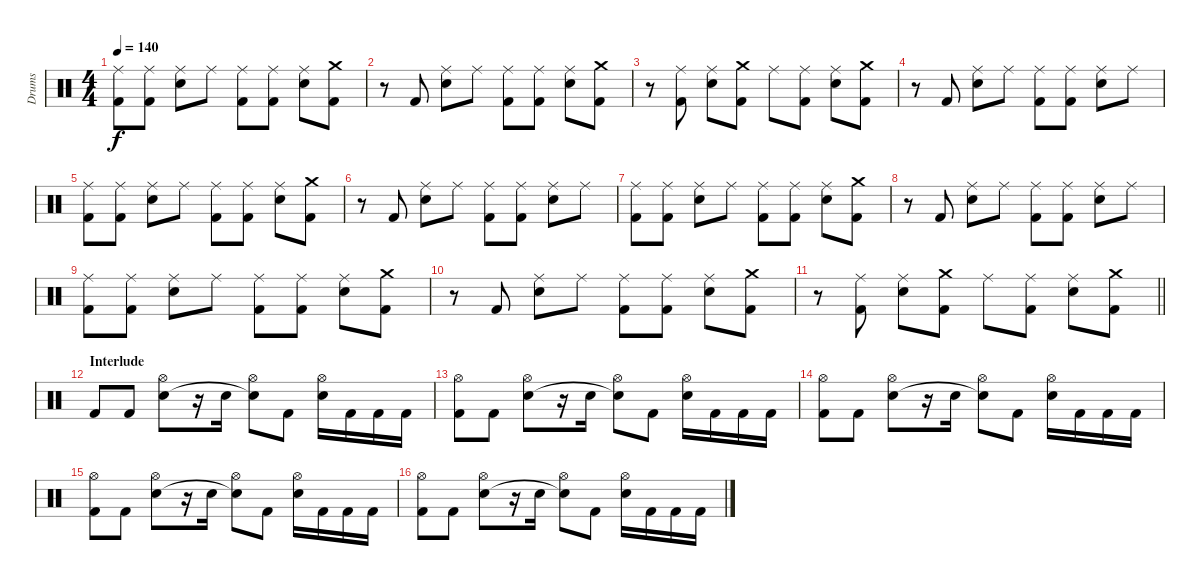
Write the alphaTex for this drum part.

\track ("Drums" "Drums") {instrument percussion}
\staff {score}
\articulation defaults
\ts (4 4)
\tempo 140
\clef neutral
\ks c
("Ride (middle)" "Kick (hit) 2").8{dy f} ("Ride (middle)" "Kick (hit) 2").8 ("Ride (middle)" "Snare (hit) 2").8 "Ride (middle)".8 ("Ride (middle)" "Kick (hit) 2").8 ("Ride (middle)" "Kick (hit) 2").8 ("Ride (middle)" "Snare (hit) 2").8 ("Crash medium (hit)" "Kick (hit) 2").8 |
r.8 "Kick (hit) 2".8 ("Ride (middle)" "Snare (hit) 2").8 "Ride (middle)".8 ("Ride (middle)" "Kick (hit) 2").8 ("Ride (middle)" "Kick (hit) 2").8 ("Ride (middle)" "Snare (hit) 2").8 ("Crash medium (hit)" "Kick (hit) 2").8 |
r.8 ("Ride (middle)" "Kick (hit) 2").8 ("Ride (middle)" "Snare (hit) 2").8 ("Crash medium (hit)" "Kick (hit) 2").8 "Ride (middle)".8 ("Ride (middle)" "Kick (hit) 2").8 ("Ride (middle)" "Snare (hit) 2").8 ("Crash medium (hit)" "Kick (hit) 2").8 |
r.8 "Kick (hit) 2".8 ("Ride (middle)" "Snare (hit) 2").8 "Ride (middle)".8 ("Ride (middle)" "Kick (hit) 2").8 ("Ride (middle)" "Kick (hit) 2").8 ("Ride (middle)" "Snare (hit) 2").8 "Ride (middle)".8 |
("Ride (middle)" "Kick (hit) 2").8 ("Ride (middle)" "Kick (hit) 2").8 ("Ride (middle)" "Snare (hit) 2").8 "Ride (middle)".8 ("Ride (middle)" "Kick (hit) 2").8 ("Ride (middle)" "Kick (hit) 2").8 ("Ride (middle)" "Snare (hit) 2").8 ("Crash medium (hit)" "Kick (hit) 2").8 |
r.8 "Kick (hit) 2".8 ("Ride (middle)" "Snare (hit) 2").8 "Ride (middle)".8 ("Ride (middle)" "Kick (hit) 2").8 ("Ride (middle)" "Kick (hit) 2").8 ("Ride (middle)" "Snare (hit) 2").8 "Ride (middle)".8 |
("Ride (middle)" "Kick (hit) 2").8 ("Ride (middle)" "Kick (hit) 2").8 ("Ride (middle)" "Snare (hit) 2").8 "Ride (middle)".8 ("Ride (middle)" "Kick (hit) 2").8 ("Ride (middle)" "Kick (hit) 2").8 ("Ride (middle)" "Snare (hit) 2").8 ("Crash medium (hit)" "Kick (hit) 2").8 |
r.8 "Kick (hit) 2".8 ("Ride (middle)" "Snare (hit) 2").8 "Ride (middle)".8 ("Ride (middle)" "Kick (hit) 2").8 ("Ride (middle)" "Kick (hit) 2").8 ("Ride (middle)" "Snare (hit) 2").8 "Ride (middle)".8 |
("Ride (middle)" "Kick (hit) 2").8 ("Ride (middle)" "Kick (hit) 2").8 ("Ride (middle)" "Snare (hit) 2").8 "Ride (middle)".8 ("Ride (middle)" "Kick (hit) 2").8 ("Ride (middle)" "Kick (hit) 2").8 ("Ride (middle)" "Snare (hit) 2").8 ("Crash medium (hit)" "Kick (hit) 2").8 |
r.8 "Kick (hit) 2".8 ("Ride (middle)" "Snare (hit) 2").8 "Ride (middle)".8 ("Ride (middle)" "Kick (hit) 2").8 ("Ride (middle)" "Kick (hit) 2").8 ("Ride (middle)" "Snare (hit) 2").8 ("Crash medium (hit)" "Kick (hit) 2").8 |
\barLineRight lightlight
r.8 ("Ride (middle)" "Kick (hit) 2").8 ("Ride (middle)" "Snare (hit) 2").8 ("Crash medium (hit)" "Kick (hit) 2").8 "Ride (middle)".8 ("Ride (middle)" "Kick (hit) 2").8 ("Ride (middle)" "Snare (hit) 2").8 ("Crash medium (hit)" "Kick (hit) 2").8 |
\section ("" "Interlude")
"Kick (hit) 2".8 "Kick (hit) 2".8 ("Hi-Hat (open)" "Snare (hit) 2").8 r.16 "Snare (hit) 2".16 ("Hi-Hat (open)" "Snare (hit) 2"{t}).8 "Kick (hit) 2".8 ("Hi-Hat (open)" "Snare (hit) 2").16 "Kick (hit) 2".16 "Kick (hit) 2".16 "Kick (hit) 2".16 |
("Hi-Hat (open)" "Kick (hit) 2").8 "Kick (hit) 2".8 ("Hi-Hat (open)" "Snare (hit) 2").8 r.16 "Snare (hit) 2".16 ("Hi-Hat (open)" "Snare (hit) 2"{t}).8 "Kick (hit) 2".8 ("Hi-Hat (open)" "Snare (hit) 2").16 "Kick (hit) 2".16 "Kick (hit) 2".16 "Kick (hit) 2".16 |
("Hi-Hat (open)" "Kick (hit) 2").8 "Kick (hit) 2".8 ("Hi-Hat (open)" "Snare (hit) 2").8 r.16 "Snare (hit) 2".16 ("Hi-Hat (open)" "Snare (hit) 2"{t}).8 "Kick (hit) 2".8 ("Hi-Hat (open)" "Snare (hit) 2").16 "Kick (hit) 2".16 "Kick (hit) 2".16 "Kick (hit) 2".16 |
("Hi-Hat (open)" "Kick (hit) 2").8 "Kick (hit) 2".8 ("Hi-Hat (open)" "Snare (hit) 2").8 r.16 "Snare (hit) 2".16 ("Hi-Hat (open)" "Snare (hit) 2"{t}).8 "Kick (hit) 2".8 ("Hi-Hat (open)" "Snare (hit) 2").16 "Kick (hit) 2".16 "Kick (hit) 2".16 "Kick (hit) 2".16 |
("Hi-Hat (open)" "Kick (hit) 2").8 "Kick (hit) 2".8 ("Hi-Hat (open)" "Snare (hit) 2").8 r.16 "Snare (hit) 2".16 ("Hi-Hat (open)" "Snare (hit) 2"{t}).8 "Kick (hit) 2".8 ("Hi-Hat (open)" "Snare (hit) 2").16 "Kick (hit) 2".16 "Kick (hit) 2".16 "Kick (hit) 2".16
